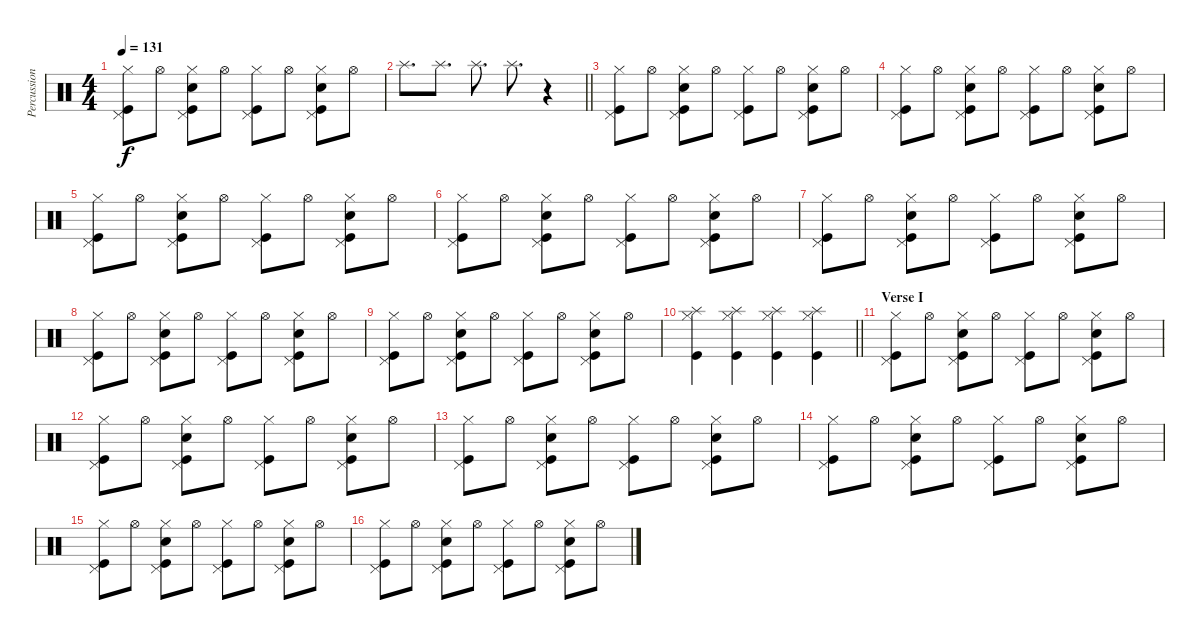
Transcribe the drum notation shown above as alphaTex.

\track ("Percussion II" "Percussion") {instrument percussion}
\staff {score}
\articulation defaults
\ts (4 4)
\tempo 131
\clef neutral
\ks c
("Pedal Hi-Hat (hit)" "Hi-Hat (closed)" "Kick (hit)").8{dy f} "Hi-Hat (open)".8 ("Pedal Hi-Hat (hit)" "Hand Clap (hit)" "Hi-Hat (closed)" "Kick (hit)").8 "Hi-Hat (open)".8 ("Pedal Hi-Hat (hit)" "Hi-Hat (closed)" "Kick (hit)").8 "Hi-Hat (open)".8 ("Pedal Hi-Hat (hit)" "Hand Clap (hit)" "Hi-Hat (closed)" "Kick (hit)").8 "Hi-Hat (open)".8 |
\barLineRight lightlight "Splash (hit)".8{d} "Splash (hit)".8{d} "Splash (hit)".8{d} "Splash (hit)".8{d}
r.4 |
\section ("" "")
("Pedal Hi-Hat (hit)" "Hi-Hat (closed)" "Kick (hit)").8 "Hi-Hat (open)".8 ("Pedal Hi-Hat (hit)" "Hand Clap (hit)" "Hi-Hat (closed)" "Kick (hit)").8 "Hi-Hat (open)".8 ("Pedal Hi-Hat (hit)" "Hi-Hat (closed)" "Kick (hit)").8 "Hi-Hat (open)".8 ("Pedal Hi-Hat (hit)" "Hand Clap (hit)" "Hi-Hat (closed)" "Kick (hit)").8 "Hi-Hat (open)".8 |
("Pedal Hi-Hat (hit)" "Hi-Hat (closed)" "Kick (hit)").8 "Hi-Hat (open)".8 ("Pedal Hi-Hat (hit)" "Hand Clap (hit)" "Hi-Hat (closed)" "Kick (hit)").8 "Hi-Hat (open)".8 ("Pedal Hi-Hat (hit)" "Hi-Hat (closed)" "Kick (hit)").8 "Hi-Hat (open)".8 ("Pedal Hi-Hat (hit)" "Hand Clap (hit)" "Hi-Hat (closed)" "Kick (hit)").8 "Hi-Hat (open)".8 |
("Pedal Hi-Hat (hit)" "Hi-Hat (closed)" "Kick (hit)").8 "Hi-Hat (open)".8 ("Pedal Hi-Hat (hit)" "Hand Clap (hit)" "Hi-Hat (closed)" "Kick (hit)").8 "Hi-Hat (open)".8 ("Pedal Hi-Hat (hit)" "Hi-Hat (closed)" "Kick (hit)").8 "Hi-Hat (open)".8 ("Pedal Hi-Hat (hit)" "Hand Clap (hit)" "Hi-Hat (closed)" "Kick (hit)").8 "Hi-Hat (open)".8 |
("Pedal Hi-Hat (hit)" "Hi-Hat (closed)" "Kick (hit)").8 "Hi-Hat (open)".8 ("Pedal Hi-Hat (hit)" "Hand Clap (hit)" "Hi-Hat (closed)" "Kick (hit)").8 "Hi-Hat (open)".8 ("Pedal Hi-Hat (hit)" "Hi-Hat (closed)" "Kick (hit)").8 "Hi-Hat (open)".8 ("Pedal Hi-Hat (hit)" "Hand Clap (hit)" "Hi-Hat (closed)" "Kick (hit)").8 "Hi-Hat (open)".8 |
("Pedal Hi-Hat (hit)" "Hi-Hat (closed)" "Kick (hit)").8 "Hi-Hat (open)".8 ("Pedal Hi-Hat (hit)" "Hand Clap (hit)" "Hi-Hat (closed)" "Kick (hit)").8 "Hi-Hat (open)".8 ("Pedal Hi-Hat (hit)" "Hi-Hat (closed)" "Kick (hit)").8 "Hi-Hat (open)".8 ("Pedal Hi-Hat (hit)" "Hand Clap (hit)" "Hi-Hat (closed)" "Kick (hit)").8 "Hi-Hat (open)".8 |
("Pedal Hi-Hat (hit)" "Hi-Hat (closed)" "Kick (hit)").8 "Hi-Hat (open)".8 ("Pedal Hi-Hat (hit)" "Hand Clap (hit)" "Hi-Hat (closed)" "Kick (hit)").8 "Hi-Hat (open)".8 ("Pedal Hi-Hat (hit)" "Hi-Hat (closed)" "Kick (hit)").8 "Hi-Hat (open)".8 ("Pedal Hi-Hat (hit)" "Hand Clap (hit)" "Hi-Hat (closed)" "Kick (hit)").8 "Hi-Hat (open)".8 |
("Pedal Hi-Hat (hit)" "Hi-Hat (closed)" "Kick (hit)").8 "Hi-Hat (open)".8 ("Pedal Hi-Hat (hit)" "Hand Clap (hit)" "Hi-Hat (closed)" "Kick (hit)").8 "Hi-Hat (open)".8 ("Pedal Hi-Hat (hit)" "Hi-Hat (closed)" "Kick (hit)").8 "Hi-Hat (open)".8 ("Pedal Hi-Hat (hit)" "Hand Clap (hit)" "Hi-Hat (closed)" "Kick (hit)").8 "Hi-Hat (open)".8 |
\barLineRight lightlight
("Splash (hit)" "Hi-Hat (closed)" "Kick (hit)").4 ("Splash (hit)" "Hi-Hat (closed)" "Kick (hit)").4 ("Splash (hit)" "Hi-Hat (closed)" "Kick (hit)").4 ("Splash (hit)" "Hi-Hat (closed)" "Kick (hit)").4 |
\section ("" "Verse I")
("Pedal Hi-Hat (hit)" "Hi-Hat (closed)" "Kick (hit)").8 "Hi-Hat (open)".8 ("Pedal Hi-Hat (hit)" "Hand Clap (hit)" "Hi-Hat (closed)" "Kick (hit)").8 "Hi-Hat (open)".8 ("Pedal Hi-Hat (hit)" "Hi-Hat (closed)" "Kick (hit)").8 "Hi-Hat (open)".8 ("Pedal Hi-Hat (hit)" "Hand Clap (hit)" "Hi-Hat (closed)" "Kick (hit)").8 "Hi-Hat (open)".8 |
("Pedal Hi-Hat (hit)" "Hi-Hat (closed)" "Kick (hit)").8 "Hi-Hat (open)".8 ("Pedal Hi-Hat (hit)" "Hand Clap (hit)" "Hi-Hat (closed)" "Kick (hit)").8 "Hi-Hat (open)".8 ("Pedal Hi-Hat (hit)" "Hi-Hat (closed)" "Kick (hit)").8 "Hi-Hat (open)".8 ("Pedal Hi-Hat (hit)" "Hand Clap (hit)" "Hi-Hat (closed)" "Kick (hit)").8 "Hi-Hat (open)".8 |
("Pedal Hi-Hat (hit)" "Hi-Hat (closed)" "Kick (hit)").8 "Hi-Hat (open)".8 ("Pedal Hi-Hat (hit)" "Hand Clap (hit)" "Hi-Hat (closed)" "Kick (hit)").8 "Hi-Hat (open)".8 ("Pedal Hi-Hat (hit)" "Hi-Hat (closed)" "Kick (hit)").8 "Hi-Hat (open)".8 ("Pedal Hi-Hat (hit)" "Hand Clap (hit)" "Hi-Hat (closed)" "Kick (hit)").8 "Hi-Hat (open)".8 |
("Pedal Hi-Hat (hit)" "Hi-Hat (closed)" "Kick (hit)").8 "Hi-Hat (open)".8 ("Pedal Hi-Hat (hit)" "Hand Clap (hit)" "Hi-Hat (closed)" "Kick (hit)").8 "Hi-Hat (open)".8 ("Pedal Hi-Hat (hit)" "Hi-Hat (closed)" "Kick (hit)").8 "Hi-Hat (open)".8 ("Pedal Hi-Hat (hit)" "Hand Clap (hit)" "Hi-Hat (closed)" "Kick (hit)").8 "Hi-Hat (open)".8 |
("Pedal Hi-Hat (hit)" "Hi-Hat (closed)" "Kick (hit)").8 "Hi-Hat (open)".8 ("Pedal Hi-Hat (hit)" "Hand Clap (hit)" "Hi-Hat (closed)" "Kick (hit)").8 "Hi-Hat (open)".8 ("Pedal Hi-Hat (hit)" "Hi-Hat (closed)" "Kick (hit)").8 "Hi-Hat (open)".8 ("Pedal Hi-Hat (hit)" "Hand Clap (hit)" "Hi-Hat (closed)" "Kick (hit)").8 "Hi-Hat (open)".8 |
("Pedal Hi-Hat (hit)" "Hi-Hat (closed)" "Kick (hit)").8 "Hi-Hat (open)".8 ("Pedal Hi-Hat (hit)" "Hand Clap (hit)" "Hi-Hat (closed)" "Kick (hit)").8 "Hi-Hat (open)".8 ("Pedal Hi-Hat (hit)" "Hi-Hat (closed)" "Kick (hit)").8 "Hi-Hat (open)".8 ("Pedal Hi-Hat (hit)" "Hand Clap (hit)" "Hi-Hat (closed)" "Kick (hit)").8 "Hi-Hat (open)".8
